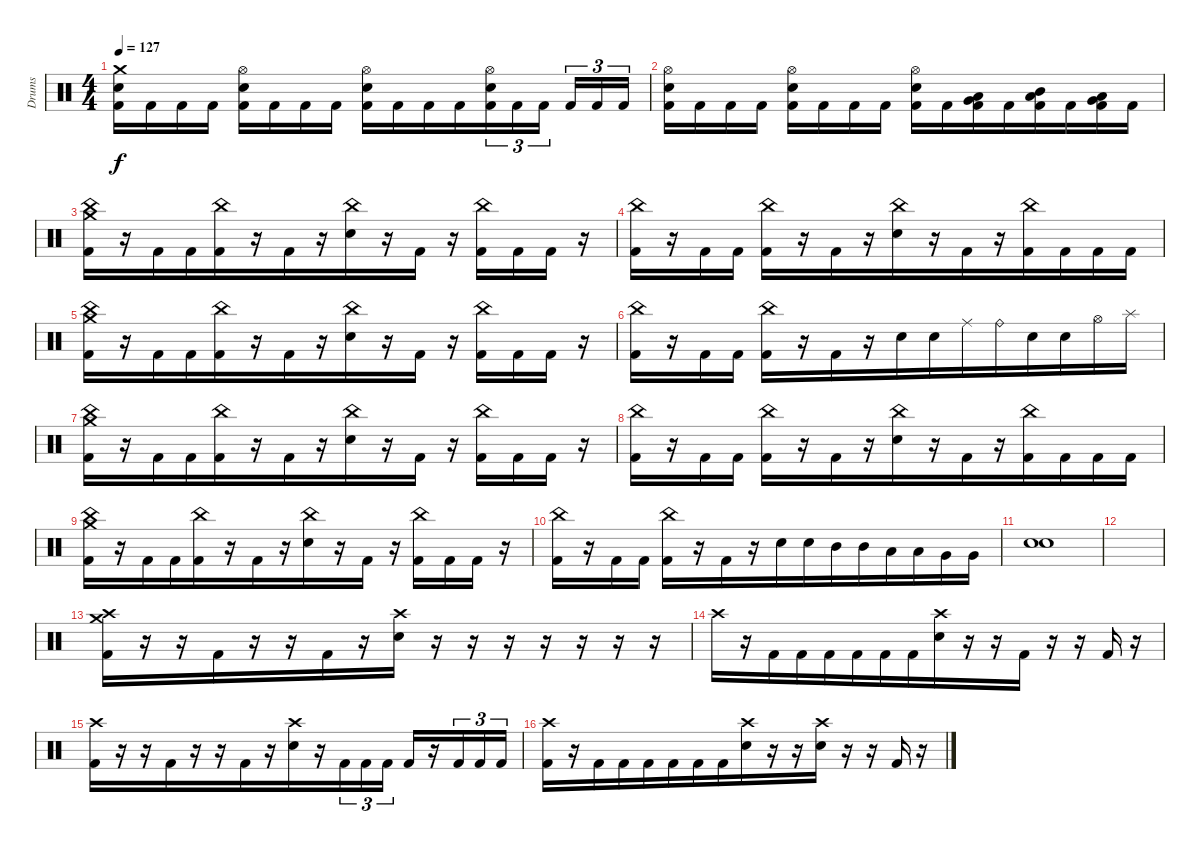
\track ("Drums" "Drums") {instrument percussion}
\staff {score}
\articulation defaults
\ts (4 4)
\tempo 127
\clef neutral
\ks c
("Crash medium (hit)" "Electric Snare (hit)" "Kick (hit) 2").16{dy f beam merge} "Kick (hit) 2".16{beam merge} "Kick (hit) 2".16 "Kick (hit) 2".16 ("Hi-Hat (open)" "Electric Snare (hit)" "Kick (hit) 2").16 "Kick (hit) 2".16 "Kick (hit) 2".16 "Kick (hit) 2".16 ("Hi-Hat (open)" "Electric Snare (hit)" "Kick (hit) 2").16 "Kick (hit) 2".16 "Kick (hit) 2".16{beam merge} "Kick (hit) 2".16{beam merge} ("Hi-Hat (open)" "Electric Snare (hit)" "Kick (hit) 2").16{tu (3 2)} "Kick (hit) 2".16{tu (3 2)} "Kick (hit) 2".16{tu (3 2) beam splitsecondary} "Kick (hit) 2".16{tu (3 2) beam merge} "Kick (hit) 2".16{tu (3 2)} "Kick (hit) 2".16{tu (3 2)} |
("Hi-Hat (open)" "Electric Snare (hit)" "Kick (hit) 2").16{beam merge} "Kick (hit) 2".16{beam merge} "Kick (hit) 2".16 "Kick (hit) 2".16 ("Hi-Hat (open)" "Electric Snare (hit)" "Kick (hit) 2").16 "Kick (hit) 2".16 "Kick (hit) 2".16 "Kick (hit) 2".16 ("Hi-Hat (open)" "Electric Snare (hit)" "Kick (hit) 2").16 "Kick (hit) 2".16 ("Very Low Tom (hit)" "Low Tom (hit)" "Kick (hit) 2").16{beam merge} "Kick (hit) 2".16{beam merge} ("Mid Tom (hit)" "Low Tom (hit)" "Kick (hit) 2").16 "Kick (hit) 2".16{beam merge} ("Very Low Tom (hit)" "Low Tom (hit)" "Kick (hit) 2").16{beam merge} "Kick (hit) 2".16 |
("Crash medium (hit)" "China (hit)" "Kick (hit) 2").16{beam merge} r.16{beam merge} "Kick (hit) 2".16{beam merge} "Kick (hit) 2".16{beam merge} ("China (hit)" "Kick (hit) 2").16{beam merge} r.16{beam merge} "Kick (hit) 2".16{beam merge} r.16 ("China (hit)" "Electric Snare (hit)").16 r.16 "Kick (hit) 2".16 r.16{beam merge} ("China (hit)" "Kick (hit) 2").16{beam merge} "Kick (hit) 2".16 "Kick (hit) 2".16 r.16 |
("China (hit)" "Kick (hit) 2").16{beam merge} r.16 "Kick (hit) 2".16{beam merge} "Kick (hit) 2".16 ("China (hit)" "Kick (hit) 2").16 r.16 "Kick (hit) 2".16{beam merge} r.16 ("China (hit)" "Electric Snare (hit)").16{beam merge} r.16 "Kick (hit) 2".16{beam merge} r.16{beam merge} ("China (hit)" "Kick (hit) 2").16{beam merge} "Kick (hit) 2".16{beam merge} "Kick (hit) 2".16 "Kick (hit) 2".16 |
("Crash medium (hit)" "China (hit)" "Kick (hit) 2").16{beam merge} r.16{beam merge} "Kick (hit) 2".16{beam merge} "Kick (hit) 2".16{beam merge} ("China (hit)" "Kick (hit) 2").16{beam merge} r.16{beam merge} "Kick (hit) 2".16{beam merge} r.16 ("China (hit)" "Electric Snare (hit)").16 r.16 "Kick (hit) 2".16 r.16{beam merge} ("China (hit)" "Kick (hit) 2").16{beam merge} "Kick (hit) 2".16 "Kick (hit) 2".16 r.16 |
("China (hit)" "Kick (hit) 2").16{beam merge} r.16 "Kick (hit) 2".16{beam merge} "Kick (hit) 2".16 ("China (hit)" "Kick (hit) 2").16 r.16 "Kick (hit) 2".16{beam merge} r.16 "Electric Snare (hit)".16{beam merge} "Electric Snare (hit)".16 "Ride (middle)".16{beam merge} "Ride (bell)".16{beam merge} "Electric Snare (hit)".16{beam merge} "Electric Snare (hit)".16{beam merge} "Hi-Hat (open)".16 "Splash (hit)".16 |
("Crash medium (hit)" "China (hit)" "Kick (hit) 2").16{beam merge} r.16{beam merge} "Kick (hit) 2".16{beam merge} "Kick (hit) 2".16{beam merge} ("China (hit)" "Kick (hit) 2").16{beam merge} r.16{beam merge} "Kick (hit) 2".16{beam merge} r.16 ("China (hit)" "Electric Snare (hit)").16 r.16 "Kick (hit) 2".16 r.16{beam merge} ("China (hit)" "Kick (hit) 2").16{beam merge} "Kick (hit) 2".16 "Kick (hit) 2".16 r.16 |
("China (hit)" "Kick (hit) 2").16{beam merge} r.16 "Kick (hit) 2".16{beam merge} "Kick (hit) 2".16 ("China (hit)" "Kick (hit) 2").16 r.16 "Kick (hit) 2".16{beam merge} r.16 ("China (hit)" "Electric Snare (hit)").16{beam merge} r.16 "Kick (hit) 2".16{beam merge} r.16{beam merge} ("China (hit)" "Kick (hit) 2").16{beam merge} "Kick (hit) 2".16{beam merge} "Kick (hit) 2".16 "Kick (hit) 2".16 |
("Crash medium (hit)" "China (hit)" "Kick (hit) 2").16{beam merge} r.16{beam merge} "Kick (hit) 2".16{beam merge} "Kick (hit) 2".16{beam merge} ("China (hit)" "Kick (hit) 2").16{beam merge} r.16{beam merge} "Kick (hit) 2".16{beam merge} r.16 ("China (hit)" "Electric Snare (hit)").16 r.16 "Kick (hit) 2".16 r.16{beam merge} ("China (hit)" "Kick (hit) 2").16{beam merge} "Kick (hit) 2".16 "Kick (hit) 2".16 r.16 |
("China (hit)" "Kick (hit) 2").16{beam merge} r.16 "Kick (hit) 2".16{beam merge} "Kick (hit) 2".16 ("China (hit)" "Kick (hit) 2").16 r.16 "Kick (hit) 2".16{beam merge} r.16 "Electric Snare (hit)".16{beam merge} "Electric Snare (hit)".16 "Mid Tom (hit)".16{beam merge} "Mid Tom (hit)".16{beam merge} "Low Tom (hit)".16{beam merge} "Low Tom (hit)".16{beam merge} "Very Low Tom (hit)".16 "Very Low Tom (hit)".16 |
("Electric Snare (hit)" "Electric Snare (hit)").1{bu 240} |
|
("Crash medium (hit)" "Crash high (hit)" "Kick (hit) 2").16{beam merge} r.16 r.16 "Kick (hit) 2".16{beam merge} r.16 r.16 "Kick (hit) 2".16{beam merge} r.16 ("Crash high (hit)" "Electric Snare (hit)").16{beam merge} r.16{beam merge} r.16{beam merge} r.16 r.16{beam merge} r.16{beam merge} r.16 r.16 |
"Crash high (hit)".16{beam merge} r.16{beam merge} "Kick (hit) 2".16 "Kick (hit) 2".16{beam merge} "Kick (hit) 2".16{beam merge} "Kick (hit) 2".16 "Kick (hit) 2".16 "Kick (hit) 2".16{beam merge} ("Crash high (hit)" "Electric Snare (hit)").16 r.16 r.16{beam merge} "Kick (hit) 2".16 r.16 r.16 "Kick (hit) 2".16{beam merge} r.16 |
("Crash high (hit)" "Kick (hit) 2").16{beam merge} r.16 r.16 "Kick (hit) 2".16{beam merge} r.16 r.16 "Kick (hit) 2".16{beam merge} r.16 ("Crash high (hit)" "Electric Snare (hit)").16{beam merge} r.16{beam merge} "Kick (hit) 2".16{tu (3 2) beam merge} "Kick (hit) 2".16{tu (3 2) beam merge} "Kick (hit) 2".16{tu (3 2)} "Kick (hit) 2".16{beam merge} r.16{beam merge} "Kick (hit) 2".16{tu (3 2) beam merge} "Kick (hit) 2".16{tu (3 2)} "Kick (hit) 2".16{tu (3 2)} |
("Crash high (hit)" "Kick (hit) 2").16{beam merge} r.16{beam merge} "Kick (hit) 2".16 "Kick (hit) 2".16{beam merge} "Kick (hit) 2".16{beam merge} "Kick (hit) 2".16 "Kick (hit) 2".16 "Kick (hit) 2".16{beam merge} ("Crash high (hit)" "Electric Snare (hit)").16 r.16 r.16{beam merge} ("Crash high (hit)" "Electric Snare (hit)").16 r.16 r.16 "Kick (hit) 2".16{beam merge} r.16
